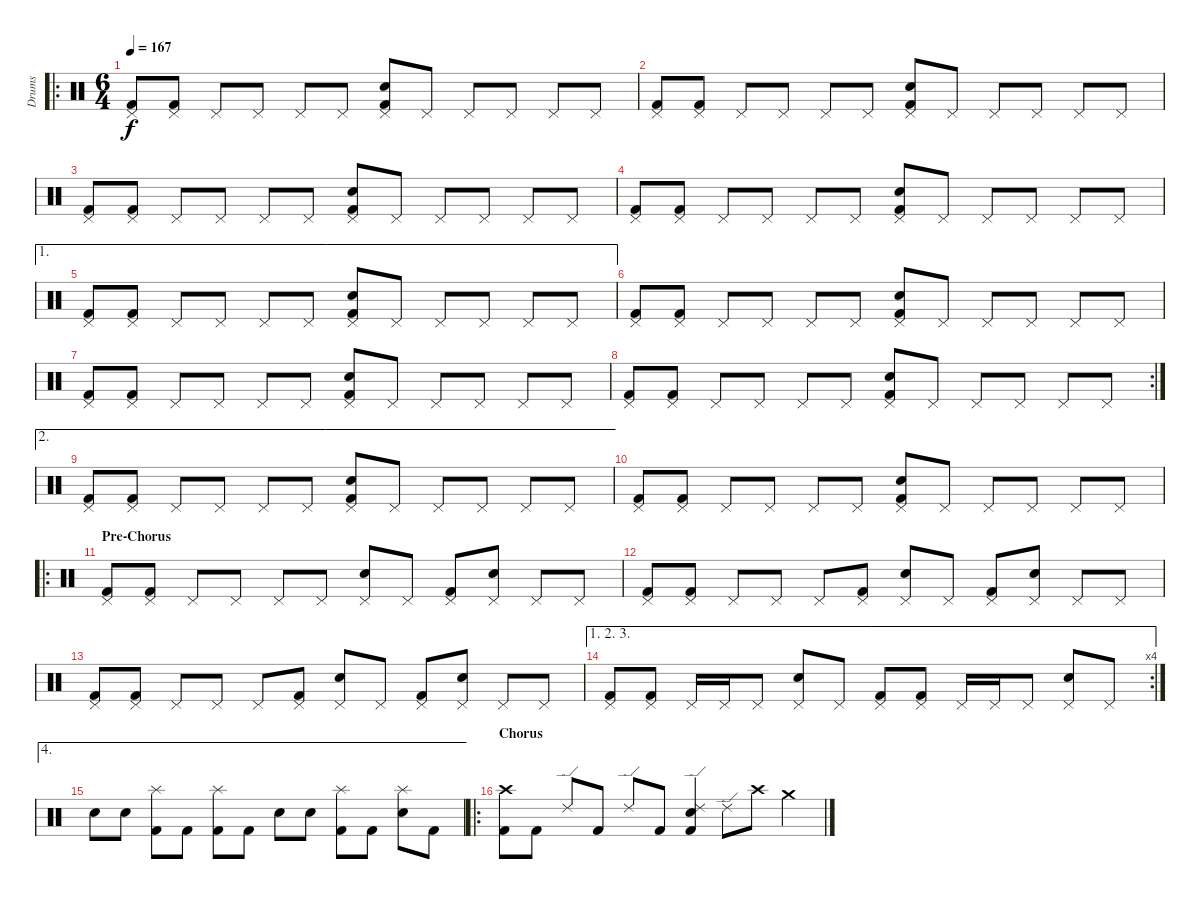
\track ("Drums" "Drums") {instrument percussion}
\staff {score}
\articulation defaults
\ro
\ts (6 4)
\tempo 167
\clef neutral
\ks c
("Pedal Hi-Hat (hit)" "Kick (hit) 2").8{dy f} ("Pedal Hi-Hat (hit)" "Kick (hit) 2").8 "Pedal Hi-Hat (hit)".8 "Pedal Hi-Hat (hit)".8 "Pedal Hi-Hat (hit)".8 "Pedal Hi-Hat (hit)".8 ("Pedal Hi-Hat (hit)" "Electric Snare (hit)" "Kick (hit) 2").8 "Pedal Hi-Hat (hit)".8 "Pedal Hi-Hat (hit)".8 "Pedal Hi-Hat (hit)".8 "Pedal Hi-Hat (hit)".8 "Pedal Hi-Hat (hit)".8 |
("Pedal Hi-Hat (hit)" "Kick (hit) 2").8 ("Pedal Hi-Hat (hit)" "Kick (hit) 2").8 "Pedal Hi-Hat (hit)".8 "Pedal Hi-Hat (hit)".8 "Pedal Hi-Hat (hit)".8 "Pedal Hi-Hat (hit)".8 ("Pedal Hi-Hat (hit)" "Electric Snare (hit)" "Kick (hit) 2").8 "Pedal Hi-Hat (hit)".8 "Pedal Hi-Hat (hit)".8 "Pedal Hi-Hat (hit)".8 "Pedal Hi-Hat (hit)".8 "Pedal Hi-Hat (hit)".8 |
("Pedal Hi-Hat (hit)" "Kick (hit) 2").8 ("Pedal Hi-Hat (hit)" "Kick (hit) 2").8 "Pedal Hi-Hat (hit)".8 "Pedal Hi-Hat (hit)".8 "Pedal Hi-Hat (hit)".8 "Pedal Hi-Hat (hit)".8 ("Pedal Hi-Hat (hit)" "Electric Snare (hit)" "Kick (hit) 2").8 "Pedal Hi-Hat (hit)".8 "Pedal Hi-Hat (hit)".8 "Pedal Hi-Hat (hit)".8 "Pedal Hi-Hat (hit)".8 "Pedal Hi-Hat (hit)".8 |
("Pedal Hi-Hat (hit)" "Kick (hit) 2").8 ("Pedal Hi-Hat (hit)" "Kick (hit) 2").8 "Pedal Hi-Hat (hit)".8 "Pedal Hi-Hat (hit)".8 "Pedal Hi-Hat (hit)".8 "Pedal Hi-Hat (hit)".8 ("Pedal Hi-Hat (hit)" "Electric Snare (hit)" "Kick (hit) 2").8 "Pedal Hi-Hat (hit)".8 "Pedal Hi-Hat (hit)".8 "Pedal Hi-Hat (hit)".8 "Pedal Hi-Hat (hit)".8 "Pedal Hi-Hat (hit)".8 |
\ae 1
("Pedal Hi-Hat (hit)" "Kick (hit) 2").8 ("Pedal Hi-Hat (hit)" "Kick (hit) 2").8 "Pedal Hi-Hat (hit)".8 "Pedal Hi-Hat (hit)".8 "Pedal Hi-Hat (hit)".8 "Pedal Hi-Hat (hit)".8 ("Pedal Hi-Hat (hit)" "Electric Snare (hit)" "Kick (hit) 2").8 "Pedal Hi-Hat (hit)".8 "Pedal Hi-Hat (hit)".8 "Pedal Hi-Hat (hit)".8 "Pedal Hi-Hat (hit)".8 "Pedal Hi-Hat (hit)".8 |
("Pedal Hi-Hat (hit)" "Kick (hit) 2").8 ("Pedal Hi-Hat (hit)" "Kick (hit) 2").8 "Pedal Hi-Hat (hit)".8 "Pedal Hi-Hat (hit)".8 "Pedal Hi-Hat (hit)".8 "Pedal Hi-Hat (hit)".8 ("Pedal Hi-Hat (hit)" "Electric Snare (hit)" "Kick (hit) 2").8 "Pedal Hi-Hat (hit)".8 "Pedal Hi-Hat (hit)".8 "Pedal Hi-Hat (hit)".8 "Pedal Hi-Hat (hit)".8 "Pedal Hi-Hat (hit)".8 |
("Pedal Hi-Hat (hit)" "Kick (hit) 2").8 ("Pedal Hi-Hat (hit)" "Kick (hit) 2").8 "Pedal Hi-Hat (hit)".8 "Pedal Hi-Hat (hit)".8 "Pedal Hi-Hat (hit)".8 "Pedal Hi-Hat (hit)".8 ("Pedal Hi-Hat (hit)" "Electric Snare (hit)" "Kick (hit) 2").8 "Pedal Hi-Hat (hit)".8 "Pedal Hi-Hat (hit)".8 "Pedal Hi-Hat (hit)".8 "Pedal Hi-Hat (hit)".8 "Pedal Hi-Hat (hit)".8 |
\rc 2
("Pedal Hi-Hat (hit)" "Kick (hit) 2").8 ("Pedal Hi-Hat (hit)" "Kick (hit) 2").8 "Pedal Hi-Hat (hit)".8 "Pedal Hi-Hat (hit)".8 "Pedal Hi-Hat (hit)".8 "Pedal Hi-Hat (hit)".8 ("Pedal Hi-Hat (hit)" "Electric Snare (hit)" "Kick (hit) 2").8 "Pedal Hi-Hat (hit)".8 "Pedal Hi-Hat (hit)".8 "Pedal Hi-Hat (hit)".8 "Pedal Hi-Hat (hit)".8 "Pedal Hi-Hat (hit)".8 |
\ae 2
("Pedal Hi-Hat (hit)" "Kick (hit) 2").8 ("Pedal Hi-Hat (hit)" "Kick (hit) 2").8 "Pedal Hi-Hat (hit)".8 "Pedal Hi-Hat (hit)".8 "Pedal Hi-Hat (hit)".8 "Pedal Hi-Hat (hit)".8 ("Pedal Hi-Hat (hit)" "Electric Snare (hit)" "Kick (hit) 2").8 "Pedal Hi-Hat (hit)".8 "Pedal Hi-Hat (hit)".8 "Pedal Hi-Hat (hit)".8 "Pedal Hi-Hat (hit)".8 "Pedal Hi-Hat (hit)".8 |
("Pedal Hi-Hat (hit)" "Kick (hit) 2").8 ("Pedal Hi-Hat (hit)" "Kick (hit) 2").8 "Pedal Hi-Hat (hit)".8 "Pedal Hi-Hat (hit)".8 "Pedal Hi-Hat (hit)".8 "Pedal Hi-Hat (hit)".8 ("Pedal Hi-Hat (hit)" "Electric Snare (hit)" "Kick (hit) 2").8 "Pedal Hi-Hat (hit)".8 "Pedal Hi-Hat (hit)".8 "Pedal Hi-Hat (hit)".8 "Pedal Hi-Hat (hit)".8 "Pedal Hi-Hat (hit)".8 |
\ro
\section ("" "Pre-Chorus")
("Pedal Hi-Hat (hit)" "Kick (hit) 2").8 ("Pedal Hi-Hat (hit)" "Kick (hit) 2").8 "Pedal Hi-Hat (hit)".8 "Pedal Hi-Hat (hit)".8 "Pedal Hi-Hat (hit)".8 "Pedal Hi-Hat (hit)".8 ("Pedal Hi-Hat (hit)" "Electric Snare (hit)").8 "Pedal Hi-Hat (hit)".8 ("Pedal Hi-Hat (hit)" "Kick (hit) 2").8 ("Pedal Hi-Hat (hit)" "Electric Snare (hit)").8 "Pedal Hi-Hat (hit)".8 "Pedal Hi-Hat (hit)".8 |
("Pedal Hi-Hat (hit)" "Kick (hit) 2").8 ("Pedal Hi-Hat (hit)" "Kick (hit) 2").8 "Pedal Hi-Hat (hit)".8 "Pedal Hi-Hat (hit)".8 "Pedal Hi-Hat (hit)".8 ("Pedal Hi-Hat (hit)" "Kick (hit) 2").8 ("Pedal Hi-Hat (hit)" "Electric Snare (hit)").8 "Pedal Hi-Hat (hit)".8 ("Pedal Hi-Hat (hit)" "Kick (hit) 2").8 ("Pedal Hi-Hat (hit)" "Electric Snare (hit)").8 "Pedal Hi-Hat (hit)".8 "Pedal Hi-Hat (hit)".8 |
("Pedal Hi-Hat (hit)" "Kick (hit) 2").8 ("Pedal Hi-Hat (hit)" "Kick (hit) 2").8 "Pedal Hi-Hat (hit)".8 "Pedal Hi-Hat (hit)".8 "Pedal Hi-Hat (hit)".8 ("Pedal Hi-Hat (hit)" "Kick (hit) 2").8 ("Pedal Hi-Hat (hit)" "Electric Snare (hit)").8 "Pedal Hi-Hat (hit)".8 ("Pedal Hi-Hat (hit)" "Kick (hit) 2").8 ("Pedal Hi-Hat (hit)" "Electric Snare (hit)").8 "Pedal Hi-Hat (hit)".8 "Pedal Hi-Hat (hit)".8 |
\ae (1 2 3)
\rc 4
("Pedal Hi-Hat (hit)" "Kick (hit) 2").8 ("Pedal Hi-Hat (hit)" "Kick (hit) 2").8 "Pedal Hi-Hat (hit)".16 "Pedal Hi-Hat (hit)".16 "Pedal Hi-Hat (hit)".8 ("Pedal Hi-Hat (hit)" "Electric Snare (hit)").8 "Pedal Hi-Hat (hit)".8 ("Pedal Hi-Hat (hit)" "Kick (hit) 2").8 ("Pedal Hi-Hat (hit)" "Kick (hit) 2").8 "Pedal Hi-Hat (hit)".16 "Pedal Hi-Hat (hit)".16 "Pedal Hi-Hat (hit)".8 ("Pedal Hi-Hat (hit)" "Electric Snare (hit)").8 "Pedal Hi-Hat (hit)".8 |
\ae 4 "Electric Snare (hit)".8 "Electric Snare (hit)".8
("Splash (hit)" "Kick (hit) 2").8 "Kick (hit) 2".8 ("Splash (hit)" "Kick (hit) 2").8 "Kick (hit) 2".8 "Electric Snare (hit)".8 "Electric Snare (hit)".8 ("Splash (hit)" "Kick (hit) 2").8 "Kick (hit) 2".8 ("Splash (hit)" "Electric Snare (hit)").8 "Kick (hit) 2".8 |
\ro
\section ("" "Chorus")
("Crash high (hit)" "Kick (hit) 2").8 "Kick (hit) 2".8 "Ride (edge) 2".8 "Kick (hit) 2".8 "Ride (edge) 2".8 "Kick (hit) 2".8 ("Ride (edge) 2" "Electric Snare (hit)" "Kick (hit) 2").4 "Ride (edge) 2".8 "Crash high (hit)".8 "Crash medium (hit)".4
